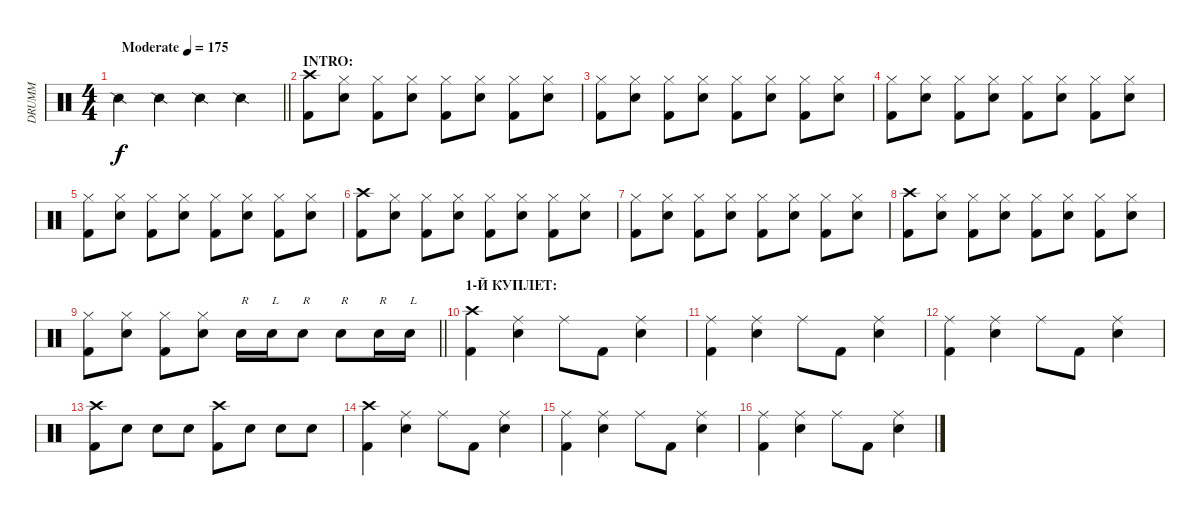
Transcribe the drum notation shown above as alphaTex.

\track ("DRUMM" "DRUMM") {instrument percussion}
\staff {score}
\articulation defaults
\ts (4 4)
\tempo (175 "Moderate")
\clef neutral
\barLineRight lightlight
\ks c "Snare (side stick) 2".4{dy f} "Snare (side stick) 2".4 "Snare (side stick) 2".4 "Snare (side stick) 2".4
|
\section ("" "INTRO:")
("Crash high (hit)" "Kick (hit) 2").8 ("Hi-Hat (closed)" "Electric Snare (hit)").8 ("Hi-Hat (closed)" "Kick (hit) 2").8 ("Hi-Hat (closed)" "Electric Snare (hit)").8 ("Hi-Hat (closed)" "Kick (hit) 2").8 ("Hi-Hat (closed)" "Electric Snare (hit)").8 ("Hi-Hat (closed)" "Kick (hit) 2").8 ("Hi-Hat (closed)" "Electric Snare (hit)").8 |
("Hi-Hat (closed)" "Kick (hit) 2").8 ("Hi-Hat (closed)" "Electric Snare (hit)").8 ("Hi-Hat (closed)" "Kick (hit) 2").8 ("Hi-Hat (closed)" "Electric Snare (hit)").8 ("Hi-Hat (closed)" "Kick (hit) 2").8 ("Hi-Hat (closed)" "Electric Snare (hit)").8 ("Hi-Hat (closed)" "Kick (hit) 2").8 ("Hi-Hat (closed)" "Electric Snare (hit)").8 |
("Hi-Hat (closed)" "Kick (hit) 2").8 ("Hi-Hat (closed)" "Electric Snare (hit)").8 ("Hi-Hat (closed)" "Kick (hit) 2").8 ("Hi-Hat (closed)" "Electric Snare (hit)").8 ("Hi-Hat (closed)" "Kick (hit) 2").8 ("Hi-Hat (closed)" "Electric Snare (hit)").8 ("Hi-Hat (closed)" "Kick (hit) 2").8 ("Hi-Hat (closed)" "Electric Snare (hit)").8 |
("Hi-Hat (closed)" "Kick (hit) 2").8 ("Hi-Hat (closed)" "Electric Snare (hit)").8 ("Hi-Hat (closed)" "Kick (hit) 2").8 ("Hi-Hat (closed)" "Electric Snare (hit)").8 ("Hi-Hat (closed)" "Kick (hit) 2").8 ("Hi-Hat (closed)" "Electric Snare (hit)").8 ("Hi-Hat (closed)" "Kick (hit) 2").8 ("Hi-Hat (closed)" "Electric Snare (hit)").8 |
("Crash high (hit)" "Kick (hit) 2").8 ("Hi-Hat (closed)" "Electric Snare (hit)").8 ("Hi-Hat (closed)" "Kick (hit) 2").8 ("Hi-Hat (closed)" "Electric Snare (hit)").8 ("Hi-Hat (closed)" "Kick (hit) 2").8 ("Hi-Hat (closed)" "Electric Snare (hit)").8 ("Hi-Hat (closed)" "Kick (hit) 2").8 ("Hi-Hat (closed)" "Electric Snare (hit)").8 |
("Hi-Hat (closed)" "Kick (hit) 2").8 ("Hi-Hat (closed)" "Electric Snare (hit)").8 ("Hi-Hat (closed)" "Kick (hit) 2").8 ("Hi-Hat (closed)" "Electric Snare (hit)").8 ("Hi-Hat (closed)" "Kick (hit) 2").8 ("Hi-Hat (closed)" "Electric Snare (hit)").8 ("Hi-Hat (closed)" "Kick (hit) 2").8 ("Hi-Hat (closed)" "Electric Snare (hit)").8 |
("Crash high (hit)" "Kick (hit) 2").8 ("Hi-Hat (closed)" "Electric Snare (hit)").8 ("Hi-Hat (closed)" "Kick (hit) 2").8 ("Hi-Hat (closed)" "Electric Snare (hit)").8 ("Hi-Hat (closed)" "Kick (hit) 2").8 ("Hi-Hat (closed)" "Electric Snare (hit)").8 ("Hi-Hat (closed)" "Kick (hit) 2").8 ("Hi-Hat (closed)" "Electric Snare (hit)").8 |
\barLineRight lightlight
("Hi-Hat (closed)" "Kick (hit) 2").8 ("Hi-Hat (closed)" "Electric Snare (hit)").8 ("Hi-Hat (closed)" "Kick (hit) 2").8 ("Hi-Hat (closed)" "Electric Snare (hit)").8 "Electric Snare (hit)".16{txt "R"} "Electric Snare (hit)".16{txt "L"} "Electric Snare (hit)".8{txt "R"} "Electric Snare (hit)".8{txt "R"} "Electric Snare (hit)".16{txt "R"} "Electric Snare (hit)".16{txt "L"} |
\section ("" "1-Й КУПЛЕТ:")
("Crash high (hit)" "Kick (hit) 2").4 ("Ride (middle)" "Electric Snare (hit)").4 "Ride (middle)".8 "Kick (hit) 2".8 ("Electric Snare (hit)" "Ride (middle)").4 |
("Ride (middle)" "Kick (hit) 2").4 ("Electric Snare (hit)" "Ride (middle)").4 "Ride (middle)".8 "Kick (hit) 2".8 ("Electric Snare (hit)" "Ride (middle)").4 |
("Ride (middle)" "Kick (hit) 2").4 ("Electric Snare (hit)" "Ride (middle)").4 "Ride (middle)".8 "Kick (hit) 2".8 ("Electric Snare (hit)" "Ride (middle)").4 |
("Crash high (hit)" "Kick (hit) 2").8 "Electric Snare (hit)".8 "Electric Snare (hit)".8 "Electric Snare (hit)".8 ("Crash high (hit)" "Kick (hit) 2").8 "Electric Snare (hit)".8 "Electric Snare (hit)".8 "Electric Snare (hit)".8 |
("Crash high (hit)" "Kick (hit) 2").4 ("Ride (middle)" "Electric Snare (hit)").4 "Ride (middle)".8 "Kick (hit) 2".8 ("Electric Snare (hit)" "Ride (middle)").4 |
("Ride (middle)" "Kick (hit) 2").4 ("Electric Snare (hit)" "Ride (middle)").4 "Ride (middle)".8 "Kick (hit) 2".8 ("Electric Snare (hit)" "Ride (middle)").4 |
("Ride (middle)" "Kick (hit) 2").4 ("Electric Snare (hit)" "Ride (middle)").4 "Ride (middle)".8 "Kick (hit) 2".8 ("Electric Snare (hit)" "Ride (middle)").4
